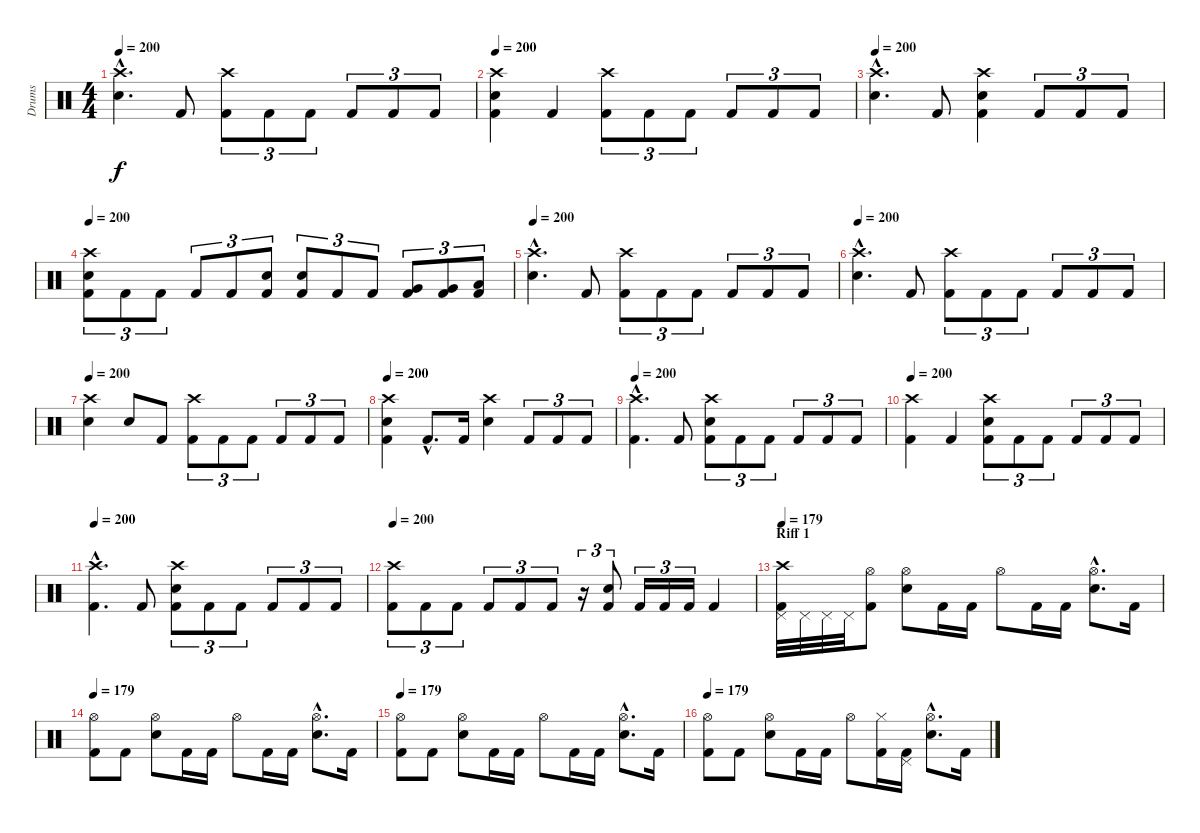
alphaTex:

\track ("Drums" "Drums") {instrument percussion}
\staff {score}
\articulation defaults
\ts (4 4)
\tempo 200
\clef neutral
\ks c
("Crash high (hit)"{hac} "Electric Snare (hit)"{hac}).4{d dy f} "Kick (hit) 2".8 ("Crash high (hit)" "Kick (hit) 2").8{tu (3 2)} "Kick (hit) 2".8{tu (3 2)} "Kick (hit) 2".8{tu (3 2)} "Kick (hit) 2".8{tu (3 2)} "Kick (hit) 2".8{tu (3 2)} "Kick (hit) 2".8{tu (3 2)} |
\tempo 200
("Crash high (hit)" "Electric Snare (hit)" "Kick (hit) 2").4 "Kick (hit) 2".4 ("Crash high (hit)" "Kick (hit) 2").8{tu (3 2)} "Kick (hit) 2".8{tu (3 2)} "Kick (hit) 2".8{tu (3 2)} "Kick (hit) 2".8{tu (3 2)} "Kick (hit) 2".8{tu (3 2)} "Kick (hit) 2".8{tu (3 2)} |
\tempo 200
("Crash high (hit)"{hac} "Electric Snare (hit)"{hac}).4{d} "Kick (hit) 2".8 ("Crash high (hit)" "Electric Snare (hit)" "Kick (hit) 2").4 "Kick (hit) 2".8{tu (3 2)} "Kick (hit) 2".8{tu (3 2)} "Kick (hit) 2".8{tu (3 2)} |
\tempo 200
("Crash high (hit)" "Electric Snare (hit)" "Kick (hit) 2").8{tu (3 2)} "Kick (hit) 2".8{tu (3 2)} "Kick (hit) 2".8{tu (3 2)} "Kick (hit) 2".8{tu (3 2)} "Kick (hit) 2".8{tu (3 2)} ("Electric Snare (hit)" "Kick (hit) 2").8{tu (3 2)} ("Electric Snare (hit)" "Kick (hit) 2").8{tu (3 2)} "Kick (hit) 2".8{tu (3 2)} "Kick (hit) 2".8{tu (3 2)} ("Very Low Tom (hit)" "Kick (hit) 2").8{tu (3 2)} ("Very Low Tom (hit)" "Kick (hit) 2").8{tu (3 2)} ("Low Floor Tom (hit)" "Kick (hit) 2").8{tu (3 2)} |
\tempo 200
("Crash high (hit)"{hac} "Electric Snare (hit)"{hac}).4{d} "Kick (hit) 2".8 ("Crash high (hit)" "Kick (hit) 2").8{tu (3 2)} "Kick (hit) 2".8{tu (3 2)} "Kick (hit) 2".8{tu (3 2)} "Kick (hit) 2".8{tu (3 2)} "Kick (hit) 2".8{tu (3 2)} "Kick (hit) 2".8{tu (3 2)} |
\tempo 200
("Crash high (hit)"{hac} "Electric Snare (hit)"{hac}).4{d} "Kick (hit) 2".8 ("Crash high (hit)" "Kick (hit) 2").8{tu (3 2)} "Kick (hit) 2".8{tu (3 2)} "Kick (hit) 2".8{tu (3 2)} "Kick (hit) 2".8{tu (3 2)} "Kick (hit) 2".8{tu (3 2)} "Kick (hit) 2".8{tu (3 2)} |
\tempo 200
("Crash high (hit)" "Electric Snare (hit)").4 "Electric Snare (hit)".8 "Kick (hit) 2".8 ("Crash high (hit)" "Kick (hit) 2").8{tu (3 2)} "Kick (hit) 2".8{tu (3 2)} "Kick (hit) 2".8{tu (3 2)} "Kick (hit) 2".8{tu (3 2)} "Kick (hit) 2".8{tu (3 2)} "Kick (hit) 2".8{tu (3 2)} |
\tempo 200
("Crash high (hit)" "Electric Snare (hit)" "Kick (hit) 2").4 "Kick (hit) 2"{hac}.8{d} "Kick (hit) 2".16 ("Crash high (hit)" "Electric Snare (hit)").4 "Kick (hit) 2".8{tu (3 2)} "Kick (hit) 2".8{tu (3 2)} "Kick (hit) 2".8{tu (3 2)} |
\tempo 200
("Crash high (hit)"{hac} "Kick (hit) 2"{hac}).4{d} "Kick (hit) 2".8 ("Crash high (hit)" "Electric Snare (hit)" "Kick (hit) 2").8{tu (3 2)} "Kick (hit) 2".8{tu (3 2)} "Kick (hit) 2".8{tu (3 2)} "Kick (hit) 2".8{tu (3 2)} "Kick (hit) 2".8{tu (3 2)} "Kick (hit) 2".8{tu (3 2)} |
\tempo 200
("Crash high (hit)" "Kick (hit) 2").4 "Kick (hit) 2".4 ("Crash high (hit)" "Electric Snare (hit)" "Kick (hit) 2").8{tu (3 2)} "Kick (hit) 2".8{tu (3 2)} "Kick (hit) 2".8{tu (3 2)} "Kick (hit) 2".8{tu (3 2)} "Kick (hit) 2".8{tu (3 2)} "Kick (hit) 2".8{tu (3 2)} |
\tempo 200
("Crash high (hit)"{hac} "Kick (hit) 2"{hac}).4{d} "Kick (hit) 2".8 ("Crash high (hit)" "Electric Snare (hit)" "Kick (hit) 2").8{tu (3 2)} "Kick (hit) 2".8{tu (3 2)} "Kick (hit) 2".8{tu (3 2)} "Kick (hit) 2".8{tu (3 2)} "Kick (hit) 2".8{tu (3 2)} "Kick (hit) 2".8{tu (3 2)} |
\tempo 200
("Crash high (hit)" "Kick (hit) 2").8{tu (3 2)} "Kick (hit) 2".8{tu (3 2)} "Kick (hit) 2".8{tu (3 2)} "Kick (hit) 2".8{tu (3 2)} "Kick (hit) 2".8{tu (3 2)} "Kick (hit) 2".8{tu (3 2)} r.16{tu (3 2)} ("Electric Snare (hit)" "Kick (hit) 2").8{tu (3 2)} "Kick (hit) 2".16{tu (3 2)} "Kick (hit) 2".16{tu (3 2)} "Kick (hit) 2".16{tu (3 2)} "Kick (hit) 2".4 |
\section ("" "Riff 1")
\tempo 179
("Pedal Hi-Hat (hit)" "Crash high (hit)" "Kick (hit) 2").32 "Pedal Hi-Hat (hit)".32 "Pedal Hi-Hat (hit)".32 "Pedal Hi-Hat (hit)".32 ("Hi-Hat (open)" "Kick (hit) 2").8 ("Hi-Hat (open)" "Electric Snare (hit)").8 "Kick (hit) 2".16 "Kick (hit) 2".16 "Hi-Hat (open)".8 "Kick (hit) 2".16 "Kick (hit) 2".16 ("Hi-Hat (open)"{hac} "Electric Snare (hit)"{hac}).8{d} "Kick (hit) 2".16 |
\tempo 179
("Hi-Hat (open)" "Kick (hit) 2").8 "Kick (hit) 2".8 ("Hi-Hat (open)" "Electric Snare (hit)").8 "Kick (hit) 2".16 "Kick (hit) 2".16 "Hi-Hat (open)".8 "Kick (hit) 2".16 "Kick (hit) 2".16 ("Hi-Hat (open)"{hac} "Electric Snare (hit)"{hac}).8{d} "Kick (hit) 2".16 |
\tempo 179
("Hi-Hat (open)" "Kick (hit) 2").8 "Kick (hit) 2".8 ("Hi-Hat (open)" "Electric Snare (hit)").8 "Kick (hit) 2".16 "Kick (hit) 2".16 "Hi-Hat (open)".8 "Kick (hit) 2".16 "Kick (hit) 2".16 ("Hi-Hat (open)"{hac} "Electric Snare (hit)"{hac}).8{d} "Kick (hit) 2".16 |
\tempo 179
("Hi-Hat (open)" "Kick (hit) 2").8 "Kick (hit) 2".8 ("Hi-Hat (open)" "Electric Snare (hit)").8 "Kick (hit) 2".16 "Kick (hit) 2".16 "Hi-Hat (open)".8 ("Hi-Hat (closed)" "Kick (hit) 2").16 ("Pedal Hi-Hat (hit)" "Kick (hit) 2").16 ("Hi-Hat (open)"{hac} "Electric Snare (hit)"{hac}).8{d} "Kick (hit) 2".16
